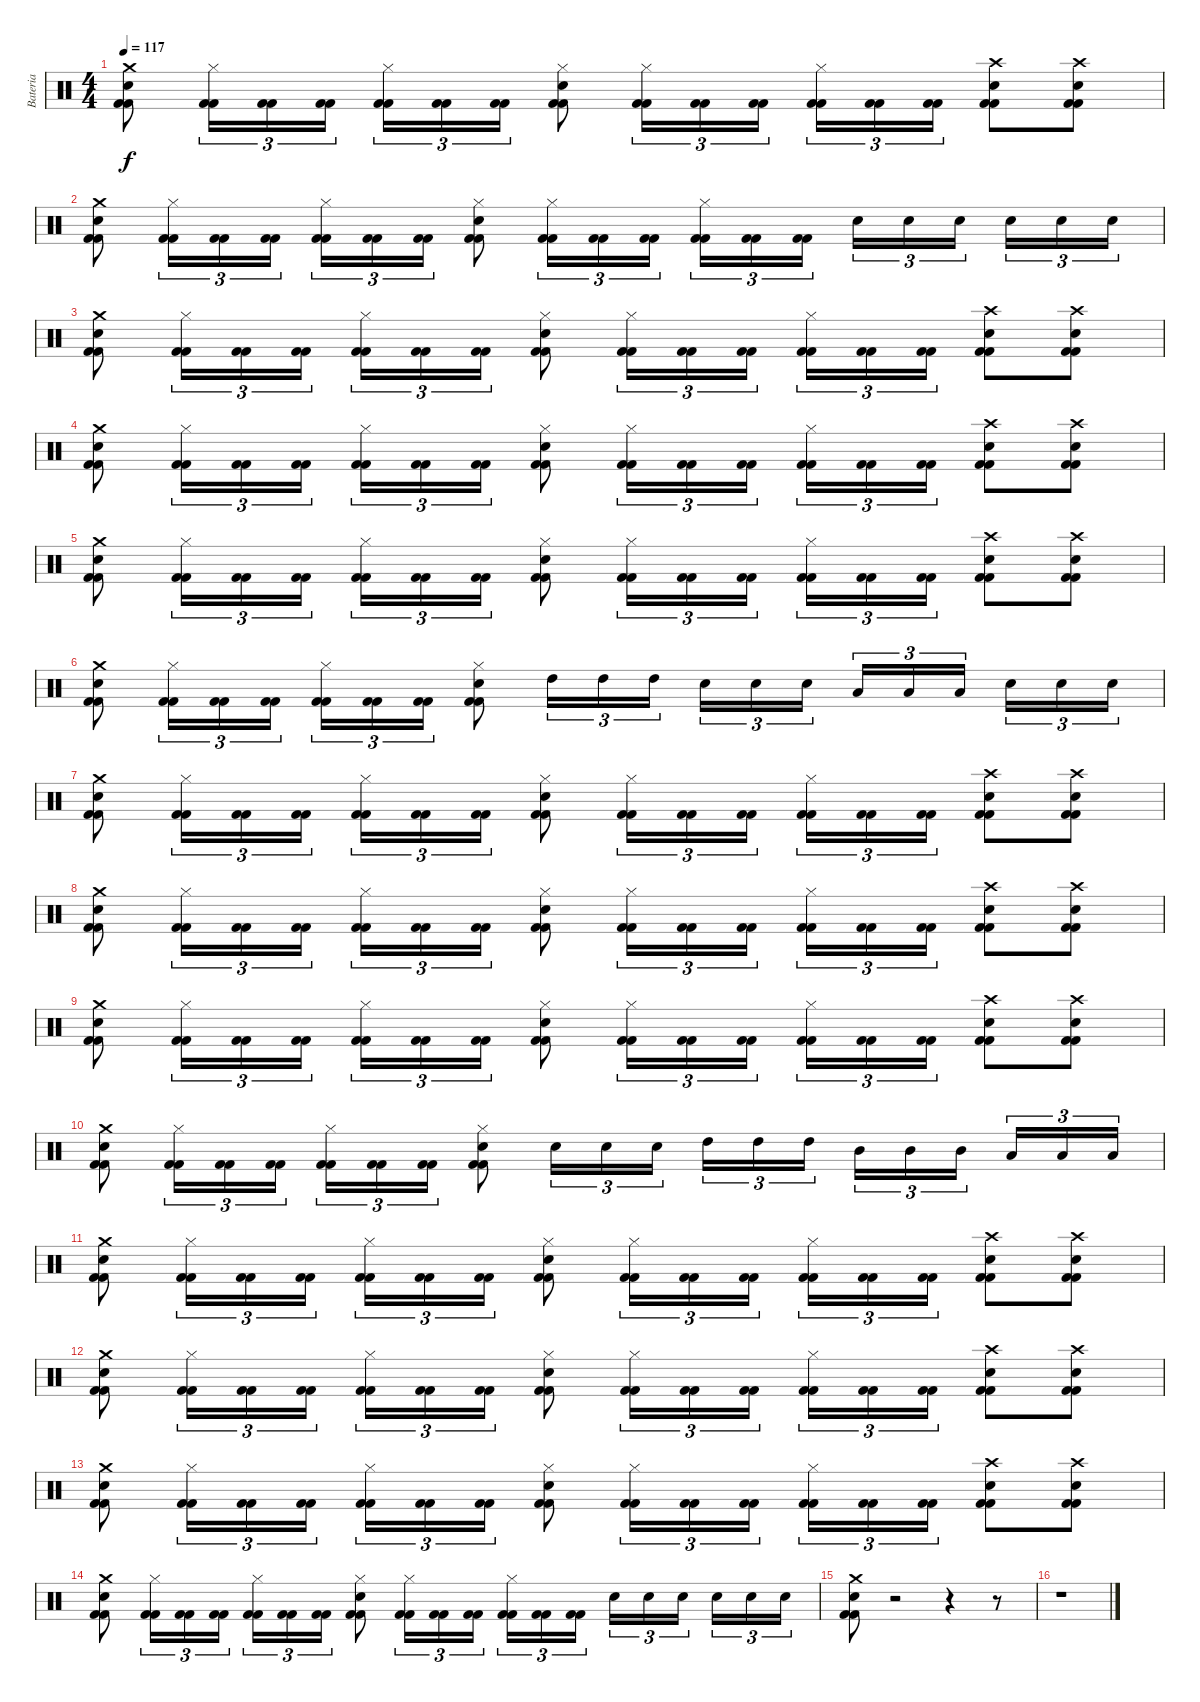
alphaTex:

\track ("Bateria" "Bateria") {instrument percussion}
\staff {score}
\articulation defaults
\ts (4 4)
\tempo 117
\clef neutral
\ks c
("Kick (hit) 2" "Kick (hit) 2" "Snare (hit) 2" "Crash medium (hit)").8{dy f} ("Kick (hit) 2" "Kick (hit) 2" "Hi-Hat (closed)").16{tu (3 2)} ("Kick (hit) 2" "Kick (hit) 2").16{tu (3 2)} ("Kick (hit) 2" "Kick (hit) 2").16{tu (3 2)} ("Kick (hit) 2" "Kick (hit) 2" "Hi-Hat (closed)").16{tu (3 2)} ("Kick (hit) 2" "Kick (hit) 2").16{tu (3 2)} ("Kick (hit) 2" "Kick (hit) 2").16{tu (3 2)} ("Kick (hit) 2" "Kick (hit) 2" "Snare (hit) 2" "Hi-Hat (closed)").8 ("Kick (hit) 2" "Kick (hit) 2" "Hi-Hat (closed)").16{tu (3 2)} ("Kick (hit) 2" "Kick (hit) 2").16{tu (3 2)} ("Kick (hit) 2" "Kick (hit) 2").16{tu (3 2)} ("Kick (hit) 2" "Kick (hit) 2" "Hi-Hat (closed)").16{tu (3 2)} ("Kick (hit) 2" "Kick (hit) 2").16{tu (3 2)} ("Kick (hit) 2" "Kick (hit) 2").16{tu (3 2)} ("Kick (hit) 2" "Kick (hit) 2" "Snare (hit) 2" "Crash high (hit)").8 ("Kick (hit) 2" "Kick (hit) 2" "Snare (hit) 2" "Crash high (hit)").8 |
("Kick (hit) 2" "Kick (hit) 2" "Snare (hit) 2" "Crash medium (hit)").8 ("Kick (hit) 2" "Kick (hit) 2" "Hi-Hat (closed)").16{tu (3 2)} ("Kick (hit) 2" "Kick (hit) 2").16{tu (3 2)} ("Kick (hit) 2" "Kick (hit) 2").16{tu (3 2)} ("Kick (hit) 2" "Kick (hit) 2" "Hi-Hat (closed)").16{tu (3 2)} ("Kick (hit) 2" "Kick (hit) 2").16{tu (3 2)} ("Kick (hit) 2" "Kick (hit) 2").16{tu (3 2)} ("Kick (hit) 2" "Kick (hit) 2" "Snare (hit) 2" "Hi-Hat (closed)").8 ("Kick (hit) 2" "Kick (hit) 2" "Hi-Hat (closed)").16{tu (3 2)} ("Kick (hit) 2" "Kick (hit) 2").16{tu (3 2)} ("Kick (hit) 2" "Kick (hit) 2").16{tu (3 2)} ("Kick (hit) 2" "Kick (hit) 2" "Hi-Hat (closed)").16{tu (3 2)} ("Kick (hit) 2" "Kick (hit) 2").16{tu (3 2)} ("Kick (hit) 2" "Kick (hit) 2").16{tu (3 2)} "Snare (hit) 2".16{tu (3 2)} "Snare (hit) 2".16{tu (3 2)} "Snare (hit) 2".16{tu (3 2)} "Snare (hit) 2".16{tu (3 2)} "Snare (hit) 2".16{tu (3 2)} "Snare (hit) 2".16{tu (3 2)} |
("Kick (hit) 2" "Kick (hit) 2" "Snare (hit) 2" "Crash medium (hit)").8 ("Kick (hit) 2" "Kick (hit) 2" "Hi-Hat (closed)").16{tu (3 2)} ("Kick (hit) 2" "Kick (hit) 2").16{tu (3 2)} ("Kick (hit) 2" "Kick (hit) 2").16{tu (3 2)} ("Kick (hit) 2" "Kick (hit) 2" "Hi-Hat (closed)").16{tu (3 2)} ("Kick (hit) 2" "Kick (hit) 2").16{tu (3 2)} ("Kick (hit) 2" "Kick (hit) 2").16{tu (3 2)} ("Kick (hit) 2" "Kick (hit) 2" "Snare (hit) 2" "Hi-Hat (closed)").8 ("Kick (hit) 2" "Kick (hit) 2" "Hi-Hat (closed)").16{tu (3 2)} ("Kick (hit) 2" "Kick (hit) 2").16{tu (3 2)} ("Kick (hit) 2" "Kick (hit) 2").16{tu (3 2)} ("Kick (hit) 2" "Kick (hit) 2" "Hi-Hat (closed)").16{tu (3 2)} ("Kick (hit) 2" "Kick (hit) 2").16{tu (3 2)} ("Kick (hit) 2" "Kick (hit) 2").16{tu (3 2)} ("Kick (hit) 2" "Kick (hit) 2" "Snare (hit) 2" "Crash high (hit)").8 ("Kick (hit) 2" "Kick (hit) 2" "Snare (hit) 2" "Crash high (hit)").8 |
("Kick (hit) 2" "Kick (hit) 2" "Snare (hit) 2" "Crash medium (hit)").8 ("Kick (hit) 2" "Kick (hit) 2" "Hi-Hat (closed)").16{tu (3 2)} ("Kick (hit) 2" "Kick (hit) 2").16{tu (3 2)} ("Kick (hit) 2" "Kick (hit) 2").16{tu (3 2)} ("Kick (hit) 2" "Kick (hit) 2" "Hi-Hat (closed)").16{tu (3 2)} ("Kick (hit) 2" "Kick (hit) 2").16{tu (3 2)} ("Kick (hit) 2" "Kick (hit) 2").16{tu (3 2)} ("Kick (hit) 2" "Kick (hit) 2" "Snare (hit) 2" "Hi-Hat (closed)").8 ("Kick (hit) 2" "Kick (hit) 2" "Hi-Hat (closed)").16{tu (3 2)} ("Kick (hit) 2" "Kick (hit) 2").16{tu (3 2)} ("Kick (hit) 2" "Kick (hit) 2").16{tu (3 2)} ("Kick (hit) 2" "Kick (hit) 2" "Hi-Hat (closed)").16{tu (3 2)} ("Kick (hit) 2" "Kick (hit) 2").16{tu (3 2)} ("Kick (hit) 2" "Kick (hit) 2").16{tu (3 2)} ("Kick (hit) 2" "Kick (hit) 2" "Snare (hit) 2" "Crash high (hit)").8 ("Kick (hit) 2" "Kick (hit) 2" "Snare (hit) 2" "Crash high (hit)").8 |
("Kick (hit) 2" "Kick (hit) 2" "Snare (hit) 2" "Crash medium (hit)").8 ("Kick (hit) 2" "Kick (hit) 2" "Hi-Hat (closed)").16{tu (3 2)} ("Kick (hit) 2" "Kick (hit) 2").16{tu (3 2)} ("Kick (hit) 2" "Kick (hit) 2").16{tu (3 2)} ("Kick (hit) 2" "Kick (hit) 2" "Hi-Hat (closed)").16{tu (3 2)} ("Kick (hit) 2" "Kick (hit) 2").16{tu (3 2)} ("Kick (hit) 2" "Kick (hit) 2").16{tu (3 2)} ("Kick (hit) 2" "Kick (hit) 2" "Snare (hit) 2" "Hi-Hat (closed)").8 ("Kick (hit) 2" "Kick (hit) 2" "Hi-Hat (closed)").16{tu (3 2)} ("Kick (hit) 2" "Kick (hit) 2").16{tu (3 2)} ("Kick (hit) 2" "Kick (hit) 2").16{tu (3 2)} ("Kick (hit) 2" "Kick (hit) 2" "Hi-Hat (closed)").16{tu (3 2)} ("Kick (hit) 2" "Kick (hit) 2").16{tu (3 2)} ("Kick (hit) 2" "Kick (hit) 2").16{tu (3 2)} ("Kick (hit) 2" "Kick (hit) 2" "Snare (hit) 2" "Crash high (hit)").8 ("Kick (hit) 2" "Kick (hit) 2" "Snare (hit) 2" "Crash high (hit)").8 |
("Kick (hit) 2" "Kick (hit) 2" "Snare (hit) 2" "Crash medium (hit)").8 ("Kick (hit) 2" "Kick (hit) 2" "Hi-Hat (closed)").16{tu (3 2)} ("Kick (hit) 2" "Kick (hit) 2").16{tu (3 2)} ("Kick (hit) 2" "Kick (hit) 2").16{tu (3 2)} ("Kick (hit) 2" "Kick (hit) 2" "Hi-Hat (closed)").16{tu (3 2)} ("Kick (hit) 2" "Kick (hit) 2").16{tu (3 2)} ("Kick (hit) 2" "Kick (hit) 2").16{tu (3 2)} ("Kick (hit) 2" "Kick (hit) 2" "Snare (hit) 2" "Hi-Hat (closed)").8 "High Tom (hit)".16{tu (3 2)} "High Tom (hit)".16{tu (3 2)} "High Tom (hit)".16{tu (3 2)} "Snare (hit) 2".16{tu (3 2)} "Snare (hit) 2".16{tu (3 2)} "Snare (hit) 2".16{tu (3 2)} "Low Tom (hit)".16{tu (3 2)} "Low Tom (hit)".16{tu (3 2)} "Low Tom (hit)".16{tu (3 2)} "Snare (hit) 2".16{tu (3 2)} "Snare (hit) 2".16{tu (3 2)} "Snare (hit) 2".16{tu (3 2)} |
("Kick (hit) 2" "Kick (hit) 2" "Snare (hit) 2" "Crash medium (hit)").8 ("Kick (hit) 2" "Kick (hit) 2" "Hi-Hat (closed)").16{tu (3 2)} ("Kick (hit) 2" "Kick (hit) 2").16{tu (3 2)} ("Kick (hit) 2" "Kick (hit) 2").16{tu (3 2)} ("Kick (hit) 2" "Kick (hit) 2" "Hi-Hat (closed)").16{tu (3 2)} ("Kick (hit) 2" "Kick (hit) 2").16{tu (3 2)} ("Kick (hit) 2" "Kick (hit) 2").16{tu (3 2)} ("Kick (hit) 2" "Kick (hit) 2" "Snare (hit) 2" "Hi-Hat (closed)").8 ("Kick (hit) 2" "Kick (hit) 2" "Hi-Hat (closed)").16{tu (3 2)} ("Kick (hit) 2" "Kick (hit) 2").16{tu (3 2)} ("Kick (hit) 2" "Kick (hit) 2").16{tu (3 2)} ("Kick (hit) 2" "Kick (hit) 2" "Hi-Hat (closed)").16{tu (3 2)} ("Kick (hit) 2" "Kick (hit) 2").16{tu (3 2)} ("Kick (hit) 2" "Kick (hit) 2").16{tu (3 2)} ("Kick (hit) 2" "Kick (hit) 2" "Snare (hit) 2" "Crash high (hit)").8 ("Kick (hit) 2" "Kick (hit) 2" "Snare (hit) 2" "Crash high (hit)").8 |
("Kick (hit) 2" "Kick (hit) 2" "Snare (hit) 2" "Crash medium (hit)").8 ("Kick (hit) 2" "Kick (hit) 2" "Hi-Hat (closed)").16{tu (3 2)} ("Kick (hit) 2" "Kick (hit) 2").16{tu (3 2)} ("Kick (hit) 2" "Kick (hit) 2").16{tu (3 2)} ("Kick (hit) 2" "Kick (hit) 2" "Hi-Hat (closed)").16{tu (3 2)} ("Kick (hit) 2" "Kick (hit) 2").16{tu (3 2)} ("Kick (hit) 2" "Kick (hit) 2").16{tu (3 2)} ("Kick (hit) 2" "Kick (hit) 2" "Snare (hit) 2" "Hi-Hat (closed)").8 ("Kick (hit) 2" "Kick (hit) 2" "Hi-Hat (closed)").16{tu (3 2)} ("Kick (hit) 2" "Kick (hit) 2").16{tu (3 2)} ("Kick (hit) 2" "Kick (hit) 2").16{tu (3 2)} ("Kick (hit) 2" "Kick (hit) 2" "Hi-Hat (closed)").16{tu (3 2)} ("Kick (hit) 2" "Kick (hit) 2").16{tu (3 2)} ("Kick (hit) 2" "Kick (hit) 2").16{tu (3 2)} ("Kick (hit) 2" "Kick (hit) 2" "Snare (hit) 2" "Crash high (hit)").8 ("Kick (hit) 2" "Kick (hit) 2" "Snare (hit) 2" "Crash high (hit)").8 |
("Kick (hit) 2" "Kick (hit) 2" "Snare (hit) 2" "Crash medium (hit)").8 ("Kick (hit) 2" "Kick (hit) 2" "Hi-Hat (closed)").16{tu (3 2)} ("Kick (hit) 2" "Kick (hit) 2").16{tu (3 2)} ("Kick (hit) 2" "Kick (hit) 2").16{tu (3 2)} ("Kick (hit) 2" "Kick (hit) 2" "Hi-Hat (closed)").16{tu (3 2)} ("Kick (hit) 2" "Kick (hit) 2").16{tu (3 2)} ("Kick (hit) 2" "Kick (hit) 2").16{tu (3 2)} ("Kick (hit) 2" "Kick (hit) 2" "Snare (hit) 2" "Hi-Hat (closed)").8 ("Kick (hit) 2" "Kick (hit) 2" "Hi-Hat (closed)").16{tu (3 2)} ("Kick (hit) 2" "Kick (hit) 2").16{tu (3 2)} ("Kick (hit) 2" "Kick (hit) 2").16{tu (3 2)} ("Kick (hit) 2" "Kick (hit) 2" "Hi-Hat (closed)").16{tu (3 2)} ("Kick (hit) 2" "Kick (hit) 2").16{tu (3 2)} ("Kick (hit) 2" "Kick (hit) 2").16{tu (3 2)} ("Kick (hit) 2" "Kick (hit) 2" "Snare (hit) 2" "Crash high (hit)").8 ("Kick (hit) 2" "Kick (hit) 2" "Snare (hit) 2" "Crash high (hit)").8 |
("Kick (hit) 2" "Kick (hit) 2" "Snare (hit) 2" "Crash medium (hit)").8 ("Kick (hit) 2" "Kick (hit) 2" "Hi-Hat (closed)").16{tu (3 2)} ("Kick (hit) 2" "Kick (hit) 2").16{tu (3 2)} ("Kick (hit) 2" "Kick (hit) 2").16{tu (3 2)} ("Kick (hit) 2" "Kick (hit) 2" "Hi-Hat (closed)").16{tu (3 2)} ("Kick (hit) 2" "Kick (hit) 2").16{tu (3 2)} ("Kick (hit) 2" "Kick (hit) 2").16{tu (3 2)} ("Kick (hit) 2" "Kick (hit) 2" "Snare (hit) 2" "Hi-Hat (closed)").8 "Snare (hit) 2".16{tu (3 2)} "Snare (hit) 2".16{tu (3 2)} "Snare (hit) 2".16{tu (3 2)} "High Tom (hit)".16{tu (3 2)} "High Tom (hit)".16{tu (3 2)} "High Tom (hit)".16{tu (3 2)} "Mid Tom (hit)".16{tu (3 2)} "Mid Tom (hit)".16{tu (3 2)} "Mid Tom (hit)".16{tu (3 2)} "Low Tom (hit)".16{tu (3 2)} "Low Tom (hit)".16{tu (3 2)} "Low Tom (hit)".16{tu (3 2)} |
("Kick (hit) 2" "Kick (hit) 2" "Snare (hit) 2" "Crash medium (hit)").8 ("Kick (hit) 2" "Kick (hit) 2" "Hi-Hat (closed)").16{tu (3 2)} ("Kick (hit) 2" "Kick (hit) 2").16{tu (3 2)} ("Kick (hit) 2" "Kick (hit) 2").16{tu (3 2)} ("Kick (hit) 2" "Kick (hit) 2" "Hi-Hat (closed)").16{tu (3 2)} ("Kick (hit) 2" "Kick (hit) 2").16{tu (3 2)} ("Kick (hit) 2" "Kick (hit) 2").16{tu (3 2)} ("Kick (hit) 2" "Kick (hit) 2" "Snare (hit) 2" "Hi-Hat (closed)").8 ("Kick (hit) 2" "Kick (hit) 2" "Hi-Hat (closed)").16{tu (3 2)} ("Kick (hit) 2" "Kick (hit) 2").16{tu (3 2)} ("Kick (hit) 2" "Kick (hit) 2").16{tu (3 2)} ("Kick (hit) 2" "Kick (hit) 2" "Hi-Hat (closed)").16{tu (3 2)} ("Kick (hit) 2" "Kick (hit) 2").16{tu (3 2)} ("Kick (hit) 2" "Kick (hit) 2").16{tu (3 2)} ("Kick (hit) 2" "Kick (hit) 2" "Snare (hit) 2" "Crash high (hit)").8 ("Kick (hit) 2" "Kick (hit) 2" "Snare (hit) 2" "Crash high (hit)").8 |
("Kick (hit) 2" "Kick (hit) 2" "Snare (hit) 2" "Crash medium (hit)").8 ("Kick (hit) 2" "Kick (hit) 2" "Hi-Hat (closed)").16{tu (3 2)} ("Kick (hit) 2" "Kick (hit) 2").16{tu (3 2)} ("Kick (hit) 2" "Kick (hit) 2").16{tu (3 2)} ("Kick (hit) 2" "Kick (hit) 2" "Hi-Hat (closed)").16{tu (3 2)} ("Kick (hit) 2" "Kick (hit) 2").16{tu (3 2)} ("Kick (hit) 2" "Kick (hit) 2").16{tu (3 2)} ("Kick (hit) 2" "Kick (hit) 2" "Snare (hit) 2" "Hi-Hat (closed)").8 ("Kick (hit) 2" "Kick (hit) 2" "Hi-Hat (closed)").16{tu (3 2)} ("Kick (hit) 2" "Kick (hit) 2").16{tu (3 2)} ("Kick (hit) 2" "Kick (hit) 2").16{tu (3 2)} ("Kick (hit) 2" "Kick (hit) 2" "Hi-Hat (closed)").16{tu (3 2)} ("Kick (hit) 2" "Kick (hit) 2").16{tu (3 2)} ("Kick (hit) 2" "Kick (hit) 2").16{tu (3 2)} ("Kick (hit) 2" "Kick (hit) 2" "Snare (hit) 2" "Crash high (hit)").8 ("Kick (hit) 2" "Kick (hit) 2" "Snare (hit) 2" "Crash high (hit)").8 |
("Kick (hit) 2" "Kick (hit) 2" "Snare (hit) 2" "Crash medium (hit)").8 ("Kick (hit) 2" "Kick (hit) 2" "Hi-Hat (closed)").16{tu (3 2)} ("Kick (hit) 2" "Kick (hit) 2").16{tu (3 2)} ("Kick (hit) 2" "Kick (hit) 2").16{tu (3 2)} ("Kick (hit) 2" "Kick (hit) 2" "Hi-Hat (closed)").16{tu (3 2)} ("Kick (hit) 2" "Kick (hit) 2").16{tu (3 2)} ("Kick (hit) 2" "Kick (hit) 2").16{tu (3 2)} ("Kick (hit) 2" "Kick (hit) 2" "Snare (hit) 2" "Hi-Hat (closed)").8 ("Kick (hit) 2" "Kick (hit) 2" "Hi-Hat (closed)").16{tu (3 2)} ("Kick (hit) 2" "Kick (hit) 2").16{tu (3 2)} ("Kick (hit) 2" "Kick (hit) 2").16{tu (3 2)} ("Kick (hit) 2" "Kick (hit) 2" "Hi-Hat (closed)").16{tu (3 2)} ("Kick (hit) 2" "Kick (hit) 2").16{tu (3 2)} ("Kick (hit) 2" "Kick (hit) 2").16{tu (3 2)} ("Kick (hit) 2" "Kick (hit) 2" "Snare (hit) 2" "Crash high (hit)").8 ("Kick (hit) 2" "Kick (hit) 2" "Snare (hit) 2" "Crash high (hit)").8 |
("Kick (hit) 2" "Kick (hit) 2" "Snare (hit) 2" "Crash medium (hit)").8 ("Kick (hit) 2" "Kick (hit) 2" "Hi-Hat (closed)").16{tu (3 2)} ("Kick (hit) 2" "Kick (hit) 2").16{tu (3 2)} ("Kick (hit) 2" "Kick (hit) 2").16{tu (3 2)} ("Kick (hit) 2" "Kick (hit) 2" "Hi-Hat (closed)").16{tu (3 2)} ("Kick (hit) 2" "Kick (hit) 2").16{tu (3 2)} ("Kick (hit) 2" "Kick (hit) 2").16{tu (3 2)} ("Kick (hit) 2" "Kick (hit) 2" "Snare (hit) 2" "Hi-Hat (closed)").8 ("Kick (hit) 2" "Kick (hit) 2" "Hi-Hat (closed)").16{tu (3 2)} ("Kick (hit) 2" "Kick (hit) 2").16{tu (3 2)} ("Kick (hit) 2" "Kick (hit) 2").16{tu (3 2)} ("Kick (hit) 2" "Kick (hit) 2" "Hi-Hat (closed)").16{tu (3 2)} ("Kick (hit) 2" "Kick (hit) 2").16{tu (3 2)} ("Kick (hit) 2" "Kick (hit) 2").16{tu (3 2)} "Snare (hit) 2".16{tu (3 2)} "Snare (hit) 2".16{tu (3 2)} "Snare (hit) 2".16{tu (3 2)} "Snare (hit) 2".16{tu (3 2)} "Snare (hit) 2".16{tu (3 2)} "Snare (hit) 2".16{tu (3 2)} |
("Kick (hit) 2" "Kick (hit) 2" "Snare (hit) 2" "Crash medium (hit)").8 r.2 r.4 r.8 |
r.1
